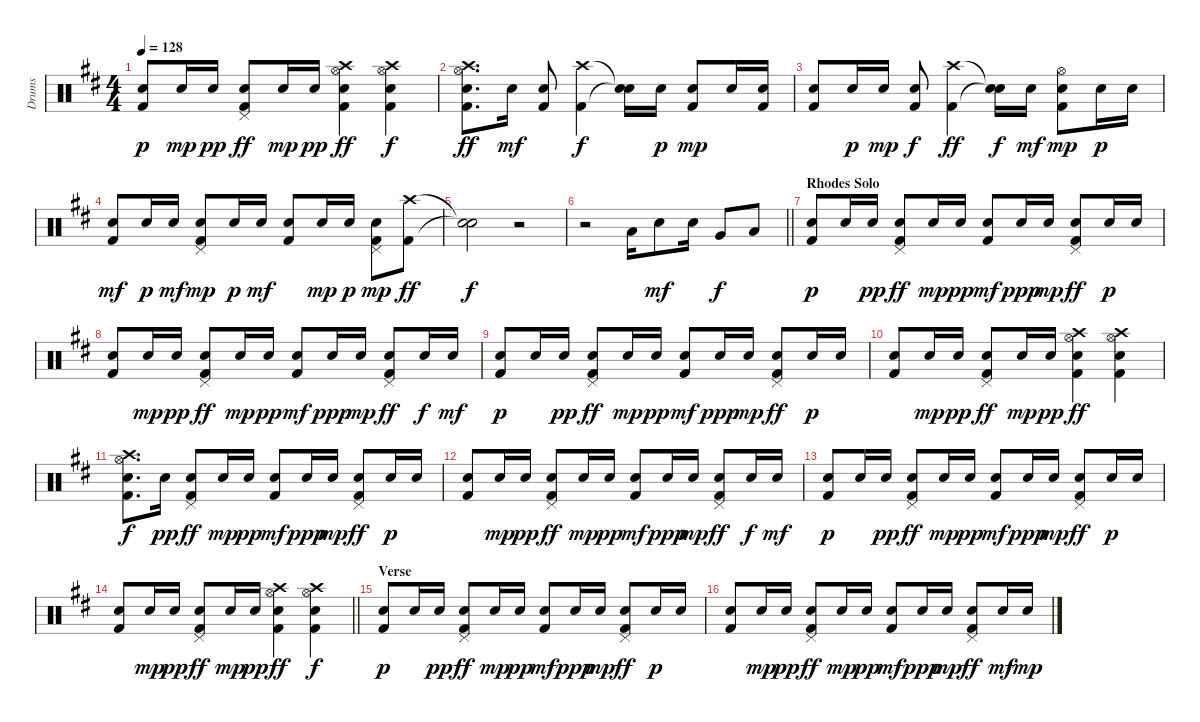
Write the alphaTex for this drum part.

\track ("Drums" "Drums") {instrument percussion}
\staff {score}
\articulation defaults
\ts (4 4)
\tempo 128
\clef neutral
\ks d
("Kick (hit) 2" "Snare (hit) 2").8{dy p} "Snare (hit) 2".16{dy mp} "Snare (hit) 2".16{dy pp} ("Kick (hit) 2" "Snare (hit) 2" "Pedal Hi-Hat (hit)").8{dy ff} "Snare (hit) 2".16{dy mp} "Snare (hit) 2".16{dy pp} ("Kick (hit) 2" "Snare (hit) 2" "Hi-Hat (open)" "Crash high (hit)").4{dy ff} ("Kick (hit) 2" "Snare (hit) 2" "Hi-Hat (open)" "Crash high (hit)").4{dy f} |
("Kick (hit) 2" "Snare (hit) 2" "Hi-Hat (open)" "Crash high (hit)").8{d dy ff} "Snare (hit) 2".16{dy mf} ("Kick (hit) 2" "Snare (hit) 2").8 ("Kick (hit) 2" "Crash high (hit)").4{dy f} ("Snare (hit)"{t} "Snare (hit)"{t}).16 "Snare (hit) 2".16{dy p} ("Kick (hit) 2" "Snare (hit) 2").8{dy mp} "Snare (hit) 2".16 ("Kick (hit) 2" "Snare (hit) 2").16 |
("Kick (hit) 2" "Snare (hit) 2").8 "Snare (hit) 2".16{dy p} "Snare (hit) 2".16{dy mp} ("Kick (hit) 2" "Snare (hit) 2").8{dy f} ("Kick (hit) 2" "Crash high (hit)").4{dy ff} ("Snare (hit)"{t} "Snare (hit)"{t}).16{dy f} "Snare (hit) 2".16{dy mf} ("Kick (hit) 2" "Snare (hit) 2" "Hi-Hat (open)").8{dy mp} "Snare (hit) 2".16{dy p} "Snare (hit) 2".16 |
("Kick (hit) 2" "Snare (hit) 2").8{dy mf} "Snare (hit) 2".16{dy p} "Snare (hit) 2".16{dy mf} ("Kick (hit) 2" "Snare (hit) 2" "Pedal Hi-Hat (hit)").8{dy mp} "Snare (hit) 2".16{dy p} "Snare (hit) 2".16{dy mf} ("Kick (hit) 2" "Snare (hit) 2").8 "Snare (hit) 2".16{dy mp} "Snare (hit) 2".16{dy p} ("Kick (hit) 2" "Snare (hit) 2" "Pedal Hi-Hat (hit)").8{dy mp} ("Kick (hit) 2" "Crash high (hit)").8{dy ff} |
("Snare (hit)"{t} "Snare (hit)"{t}).2{dy f} r.2 |
\barLineRight lightlight
r.2 "Low Tom (hit)".16 "Snare (hit) 2".8{dy mf} "Snare (hit) 2".16 "Very Low Tom (hit)".8{dy f} "Low Floor Tom (hit)".8 |
\section ("" "Rhodes Solo")
("Kick (hit) 2" "Snare (hit) 2").8{dy p} "Snare (hit) 2".16 "Snare (hit) 2".16{dy pp} ("Kick (hit) 2" "Snare (hit) 2" "Pedal Hi-Hat (hit)").8{dy ff} "Snare (hit) 2".16{dy mp} "Snare (hit) 2".16{dy pp} ("Kick (hit) 2" "Snare (hit) 2").8{dy mf} "Snare (hit) 2".16{dy ppp} "Snare (hit) 2".16{dy mp} ("Kick (hit) 2" "Snare (hit) 2" "Pedal Hi-Hat (hit)").8{dy ff} "Snare (hit) 2".16{dy p} "Snare (hit) 2".16 |
("Kick (hit) 2" "Snare (hit) 2").8 "Snare (hit) 2".16{dy mp} "Snare (hit) 2".16{dy pp} ("Kick (hit) 2" "Snare (hit) 2" "Pedal Hi-Hat (hit)").8{dy ff} "Snare (hit) 2".16{dy mp} "Snare (hit) 2".16{dy pp} ("Kick (hit) 2" "Snare (hit) 2").8{dy mf} "Snare (hit) 2".16{dy ppp} "Snare (hit) 2".16{dy mp} ("Kick (hit) 2" "Snare (hit) 2" "Pedal Hi-Hat (hit)").8{dy ff} "Snare (hit) 2".16{dy f} "Snare (hit) 2".16{dy mf} |
("Kick (hit) 2" "Snare (hit) 2").8{dy p} "Snare (hit) 2".16 "Snare (hit) 2".16{dy pp} ("Kick (hit) 2" "Snare (hit) 2" "Pedal Hi-Hat (hit)").8{dy ff} "Snare (hit) 2".16{dy mp} "Snare (hit) 2".16{dy pp} ("Kick (hit) 2" "Snare (hit) 2").8{dy mf} "Snare (hit) 2".16{dy ppp} "Snare (hit) 2".16{dy mp} ("Kick (hit) 2" "Snare (hit) 2" "Pedal Hi-Hat (hit)").8{dy ff} "Snare (hit) 2".16{dy p} "Snare (hit) 2".16 |
("Kick (hit) 2" "Snare (hit) 2").8 "Snare (hit) 2".16{dy mp} "Snare (hit) 2".16{dy pp} ("Kick (hit) 2" "Snare (hit) 2" "Pedal Hi-Hat (hit)").8{dy ff} "Snare (hit) 2".16{dy mp} "Snare (hit) 2".16{dy pp} ("Kick (hit) 2" "Snare (hit) 2" "Hi-Hat (open)" "Crash high (hit)").4{dy ff} ("Kick (hit) 2" "Snare (hit) 2" "Hi-Hat (open)" "Crash high (hit)").4 |
("Kick (hit) 2" "Snare (hit) 2" "Hi-Hat (open)" "Crash high (hit)").8{d dy f} "Snare (hit) 2".16{dy pp} ("Kick (hit) 2" "Snare (hit) 2" "Pedal Hi-Hat (hit)").8{dy ff} "Snare (hit) 2".16{dy mp} "Snare (hit) 2".16{dy pp} ("Kick (hit) 2" "Snare (hit) 2").8{dy mf} "Snare (hit) 2".16{dy ppp} "Snare (hit) 2".16{dy mp} ("Kick (hit) 2" "Snare (hit) 2" "Pedal Hi-Hat (hit)").8{dy ff} "Snare (hit) 2".16{dy p} "Snare (hit) 2".16 |
("Kick (hit) 2" "Snare (hit) 2").8 "Snare (hit) 2".16{dy mp} "Snare (hit) 2".16{dy pp} ("Kick (hit) 2" "Snare (hit) 2" "Pedal Hi-Hat (hit)").8{dy ff} "Snare (hit) 2".16{dy mp} "Snare (hit) 2".16{dy pp} ("Kick (hit) 2" "Snare (hit) 2").8{dy mf} "Snare (hit) 2".16{dy ppp} "Snare (hit) 2".16{dy mp} ("Kick (hit) 2" "Snare (hit) 2" "Pedal Hi-Hat (hit)").8{dy ff} "Snare (hit) 2".16{dy f} "Snare (hit) 2".16{dy mf} |
("Kick (hit) 2" "Snare (hit) 2").8{dy p} "Snare (hit) 2".16 "Snare (hit) 2".16{dy pp} ("Kick (hit) 2" "Snare (hit) 2" "Pedal Hi-Hat (hit)").8{dy ff} "Snare (hit) 2".16{dy mp} "Snare (hit) 2".16{dy pp} ("Kick (hit) 2" "Snare (hit) 2").8{dy mf} "Snare (hit) 2".16{dy ppp} "Snare (hit) 2".16{dy mp} ("Kick (hit) 2" "Snare (hit) 2" "Pedal Hi-Hat (hit)").8{dy ff} "Snare (hit) 2".16{dy p} "Snare (hit) 2".16 |
\barLineRight lightlight
("Kick (hit) 2" "Snare (hit) 2").8 "Snare (hit) 2".16{dy mp} "Snare (hit) 2".16{dy pp} ("Kick (hit) 2" "Snare (hit) 2" "Pedal Hi-Hat (hit)").8{dy ff} "Snare (hit) 2".16{dy mp} "Snare (hit) 2".16{dy pp} ("Kick (hit) 2" "Snare (hit) 2" "Hi-Hat (open)" "Crash high (hit)").4{dy ff} ("Kick (hit) 2" "Snare (hit) 2" "Hi-Hat (open)" "Crash high (hit)").4{dy f} |
\section ("" "Verse")
("Kick (hit) 2" "Snare (hit) 2").8{dy p} "Snare (hit) 2".16 "Snare (hit) 2".16{dy pp} ("Kick (hit) 2" "Snare (hit) 2" "Pedal Hi-Hat (hit)").8{dy ff} "Snare (hit) 2".16{dy mp} "Snare (hit) 2".16{dy pp} ("Kick (hit) 2" "Snare (hit) 2").8{dy mf} "Snare (hit) 2".16{dy ppp} "Snare (hit) 2".16{dy mp} ("Kick (hit) 2" "Snare (hit) 2" "Pedal Hi-Hat (hit)").8{dy ff} "Snare (hit) 2".16{dy p} "Snare (hit) 2".16 |
("Kick (hit) 2" "Snare (hit) 2").8 "Snare (hit) 2".16{dy mp} "Snare (hit) 2".16{dy pp} ("Kick (hit) 2" "Snare (hit) 2" "Pedal Hi-Hat (hit)").8{dy ff} "Snare (hit) 2".16{dy mp} "Snare (hit) 2".16{dy pp} ("Kick (hit) 2" "Snare (hit) 2").8{dy mf} "Snare (hit) 2".16{dy ppp} "Snare (hit) 2".16{dy mp} ("Kick (hit) 2" "Snare (hit) 2" "Pedal Hi-Hat (hit)").8{dy ff} "Snare (hit) 2".16{dy mf} "Snare (hit) 2".16{dy mp}
